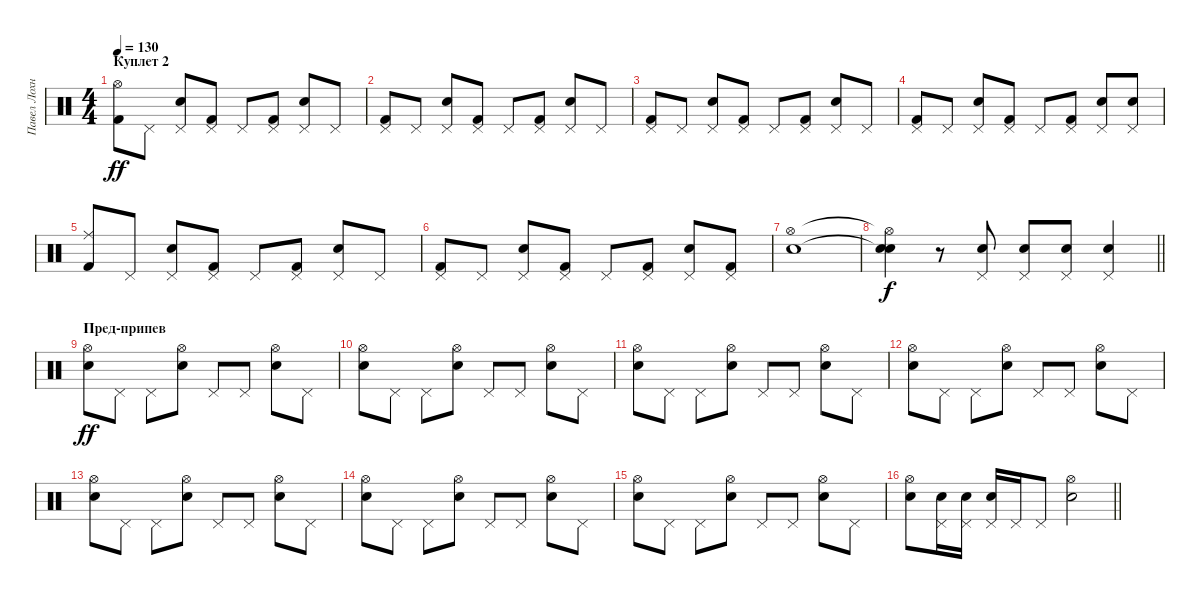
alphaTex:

\track ("Павел Лохнин" "Павел Лохн") {instrument percussion}
\staff {score}
\articulation defaults
\ts (4 4)
\section ("" "Куплет 2")
\tempo 130
\clef neutral
\ks c
("Hi-Hat (open)" "Kick (hit) 2").8{dy ff} "Pedal Hi-Hat (hit)".8 ("Pedal Hi-Hat (hit)" "Electric Snare (hit)").8 ("Pedal Hi-Hat (hit)" "Kick (hit) 2").8 "Pedal Hi-Hat (hit)".8 ("Pedal Hi-Hat (hit)" "Kick (hit) 2").8 ("Pedal Hi-Hat (hit)" "Electric Snare (hit)").8 "Pedal Hi-Hat (hit)".8 |
("Pedal Hi-Hat (hit)" "Kick (hit) 2").8 "Pedal Hi-Hat (hit)".8 ("Pedal Hi-Hat (hit)" "Electric Snare (hit)").8 ("Pedal Hi-Hat (hit)" "Kick (hit) 2").8 "Pedal Hi-Hat (hit)".8 ("Pedal Hi-Hat (hit)" "Kick (hit) 2").8 ("Pedal Hi-Hat (hit)" "Electric Snare (hit)").8 "Pedal Hi-Hat (hit)".8 |
("Pedal Hi-Hat (hit)" "Kick (hit) 2").8 "Pedal Hi-Hat (hit)".8 ("Pedal Hi-Hat (hit)" "Electric Snare (hit)").8 ("Pedal Hi-Hat (hit)" "Kick (hit) 2").8 "Pedal Hi-Hat (hit)".8 ("Pedal Hi-Hat (hit)" "Kick (hit) 2").8 ("Pedal Hi-Hat (hit)" "Electric Snare (hit)").8 "Pedal Hi-Hat (hit)".8 |
("Pedal Hi-Hat (hit)" "Kick (hit) 2").8 "Pedal Hi-Hat (hit)".8 ("Pedal Hi-Hat (hit)" "Electric Snare (hit)").8 ("Pedal Hi-Hat (hit)" "Kick (hit) 2").8 "Pedal Hi-Hat (hit)".8 ("Pedal Hi-Hat (hit)" "Kick (hit) 2").8 ("Pedal Hi-Hat (hit)" "Electric Snare (hit)").8 ("Pedal Hi-Hat (hit)" "Electric Snare (hit)").8 |
("Ride (middle)" "Kick (hit) 2").8 "Pedal Hi-Hat (hit)".8 ("Pedal Hi-Hat (hit)" "Electric Snare (hit)").8 ("Pedal Hi-Hat (hit)" "Kick (hit) 2").8 "Pedal Hi-Hat (hit)".8 ("Pedal Hi-Hat (hit)" "Kick (hit) 2").8 ("Pedal Hi-Hat (hit)" "Electric Snare (hit)").8 "Pedal Hi-Hat (hit)".8 |
("Pedal Hi-Hat (hit)" "Kick (hit) 2").8 "Pedal Hi-Hat (hit)".8 ("Pedal Hi-Hat (hit)" "Electric Snare (hit)").8 ("Pedal Hi-Hat (hit)" "Kick (hit) 2").8 "Pedal Hi-Hat (hit)".8 ("Pedal Hi-Hat (hit)" "Kick (hit) 2").8 ("Pedal Hi-Hat (hit)" "Electric Snare (hit)").8 ("Pedal Hi-Hat (hit)" "Kick (hit) 2").8 |
("Hi-Hat (open)" "Electric Snare (hit)").1 |
\barLineRight lightlight
("Hi-Hat (open)"{t} "Snare (hit)"{t} "Electric Snare (hit)").4{dy f} r.8 ("Pedal Hi-Hat (hit)" "Electric Snare (hit)").8 ("Pedal Hi-Hat (hit)" "Electric Snare (hit)").8 ("Pedal Hi-Hat (hit)" "Electric Snare (hit)").8 ("Pedal Hi-Hat (hit)" "Electric Snare (hit)").4 |
\section ("" "Пред-припев")
("Hi-Hat (open)" "Electric Snare (hit)").8{dy ff} "Pedal Hi-Hat (hit)".8 "Pedal Hi-Hat (hit)".8 ("Hi-Hat (open)" "Electric Snare (hit)").8 "Pedal Hi-Hat (hit)".8 "Pedal Hi-Hat (hit)".8 ("Hi-Hat (open)" "Electric Snare (hit)").8 "Pedal Hi-Hat (hit)".8 |
("Hi-Hat (open)" "Electric Snare (hit)").8 "Pedal Hi-Hat (hit)".8 "Pedal Hi-Hat (hit)".8 ("Hi-Hat (open)" "Electric Snare (hit)").8 "Pedal Hi-Hat (hit)".8 "Pedal Hi-Hat (hit)".8 ("Hi-Hat (open)" "Electric Snare (hit)").8 "Pedal Hi-Hat (hit)".8 |
("Hi-Hat (open)" "Electric Snare (hit)").8 "Pedal Hi-Hat (hit)".8 "Pedal Hi-Hat (hit)".8 ("Hi-Hat (open)" "Electric Snare (hit)").8 "Pedal Hi-Hat (hit)".8 "Pedal Hi-Hat (hit)".8 ("Hi-Hat (open)" "Electric Snare (hit)").8 "Pedal Hi-Hat (hit)".8 |
("Hi-Hat (open)" "Electric Snare (hit)").8 "Pedal Hi-Hat (hit)".8 "Pedal Hi-Hat (hit)".8 ("Hi-Hat (open)" "Electric Snare (hit)").8 "Pedal Hi-Hat (hit)".8 "Pedal Hi-Hat (hit)".8 ("Hi-Hat (open)" "Electric Snare (hit)").8 "Pedal Hi-Hat (hit)".8 |
("Hi-Hat (open)" "Electric Snare (hit)").8 "Pedal Hi-Hat (hit)".8 "Pedal Hi-Hat (hit)".8 ("Hi-Hat (open)" "Electric Snare (hit)").8 "Pedal Hi-Hat (hit)".8 "Pedal Hi-Hat (hit)".8 ("Hi-Hat (open)" "Electric Snare (hit)").8 "Pedal Hi-Hat (hit)".8 |
("Hi-Hat (open)" "Electric Snare (hit)").8 "Pedal Hi-Hat (hit)".8 "Pedal Hi-Hat (hit)".8 ("Hi-Hat (open)" "Electric Snare (hit)").8 "Pedal Hi-Hat (hit)".8 "Pedal Hi-Hat (hit)".8 ("Hi-Hat (open)" "Electric Snare (hit)").8 "Pedal Hi-Hat (hit)".8 |
("Hi-Hat (open)" "Electric Snare (hit)").8 "Pedal Hi-Hat (hit)".8 "Pedal Hi-Hat (hit)".8 ("Hi-Hat (open)" "Electric Snare (hit)").8 "Pedal Hi-Hat (hit)".8 "Pedal Hi-Hat (hit)".8 ("Hi-Hat (open)" "Electric Snare (hit)").8 "Pedal Hi-Hat (hit)".8 |
\barLineRight lightlight
("Hi-Hat (open)" "Electric Snare (hit)").8 ("Pedal Hi-Hat (hit)" "Electric Snare (hit)").16 ("Pedal Hi-Hat (hit)" "Electric Snare (hit)").16 ("Pedal Hi-Hat (hit)" "Electric Snare (hit)").16 "Pedal Hi-Hat (hit)".16 "Pedal Hi-Hat (hit)".8 ("Hi-Hat (open)" "Electric Snare (hit)").2
